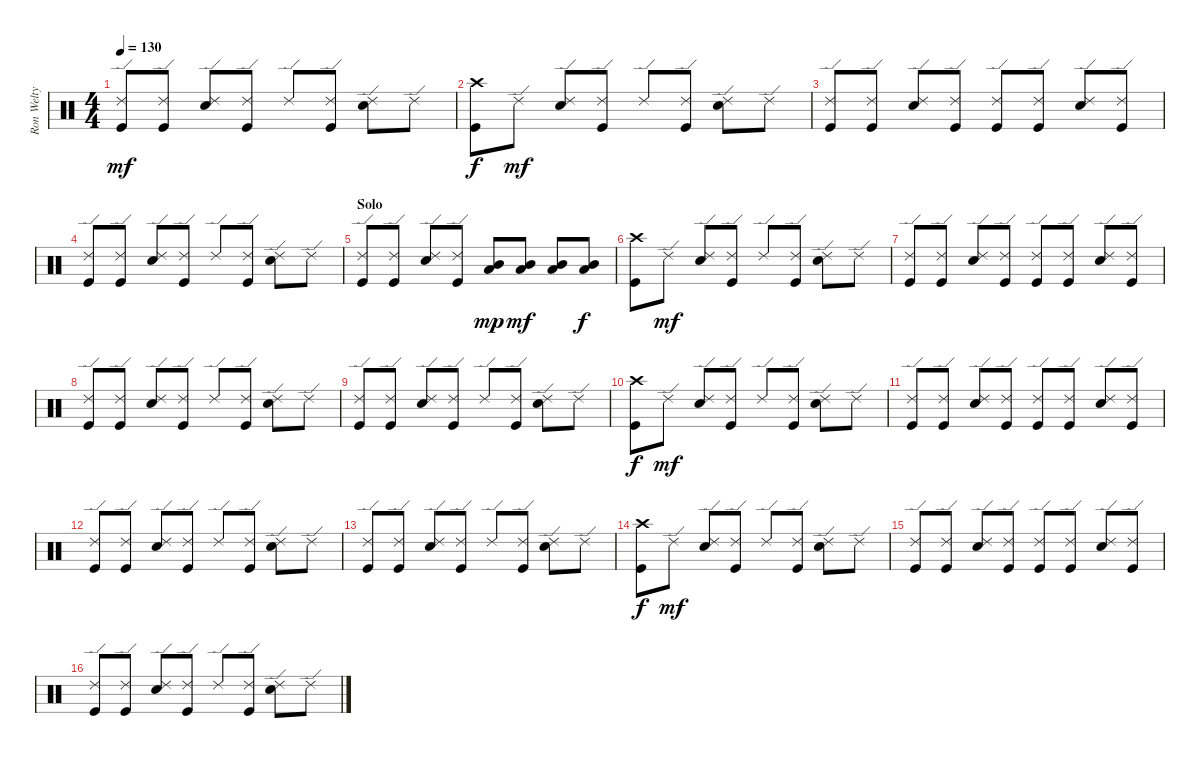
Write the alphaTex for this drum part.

\track ("Ron Welty" "Ron Welty") {instrument percussion}
\staff {score}
\articulation defaults
\ts (4 4)
\tempo 130
\clef neutral
\ks c
("Kick (hit)" "Ride (edge) 2").8{dy mf} ("Kick (hit)" "Ride (edge) 2").8 ("Electric Snare (hit)" "Ride (edge) 2").8 ("Kick (hit)" "Ride (edge) 2").8 "Ride (edge) 2".8 ("Kick (hit)" "Ride (edge) 2").8 ("Electric Snare (hit)" "Ride (edge) 2").8 "Ride (edge) 2".8 |
("Kick (hit)" "Crash high (hit)").8{dy f} "Ride (edge) 2".8{dy mf} ("Electric Snare (hit)" "Ride (edge) 2").8 ("Kick (hit)" "Ride (edge) 2").8 "Ride (edge) 2".8 ("Kick (hit)" "Ride (edge) 2").8 ("Electric Snare (hit)" "Ride (edge) 2").8 "Ride (edge) 2".8 |
("Kick (hit)" "Ride (edge) 2").8 ("Kick (hit)" "Ride (edge) 2").8 ("Electric Snare (hit)" "Ride (edge) 2").8 ("Kick (hit)" "Ride (edge) 2").8 ("Kick (hit)" "Ride (edge) 2").8 ("Kick (hit)" "Ride (edge) 2").8 ("Electric Snare (hit)" "Ride (edge) 2").8 ("Kick (hit)" "Ride (edge) 2").8 |
("Kick (hit)" "Ride (edge) 2").8 ("Kick (hit)" "Ride (edge) 2").8 ("Electric Snare (hit)" "Ride (edge) 2").8 ("Kick (hit)" "Ride (edge) 2").8 "Ride (edge) 2".8 ("Kick (hit)" "Ride (edge) 2").8 ("Electric Snare (hit)" "Ride (edge) 2").8 "Ride (edge) 2".8 |
\section ("" "Solo")
("Kick (hit)" "Ride (edge) 2").8 ("Kick (hit)" "Ride (edge) 2").8 ("Electric Snare (hit)" "Ride (edge) 2").8 ("Kick (hit)" "Ride (edge) 2").8 ("Low Floor Tom (hit)" "Mid Tom (hit)").8{dy mp} ("Mid Tom (hit)" "Low Floor Tom (hit)").8{dy mf} ("Mid Tom (hit)" "Low Floor Tom (hit)").8 ("Mid Tom (hit)" "Low Floor Tom (hit)").8{dy f} |
("Kick (hit)" "Crash high (hit)").8 "Ride (edge) 2".8{dy mf} ("Electric Snare (hit)" "Ride (edge) 2").8 ("Kick (hit)" "Ride (edge) 2").8 "Ride (edge) 2".8 ("Kick (hit)" "Ride (edge) 2").8 ("Electric Snare (hit)" "Ride (edge) 2").8 "Ride (edge) 2".8 |
("Kick (hit)" "Ride (edge) 2").8 ("Kick (hit)" "Ride (edge) 2").8 ("Electric Snare (hit)" "Ride (edge) 2").8 ("Kick (hit)" "Ride (edge) 2").8 ("Kick (hit)" "Ride (edge) 2").8 ("Kick (hit)" "Ride (edge) 2").8 ("Electric Snare (hit)" "Ride (edge) 2").8 ("Kick (hit)" "Ride (edge) 2").8 |
("Kick (hit)" "Ride (edge) 2").8 ("Kick (hit)" "Ride (edge) 2").8 ("Electric Snare (hit)" "Ride (edge) 2").8 ("Kick (hit)" "Ride (edge) 2").8 "Ride (edge) 2".8 ("Kick (hit)" "Ride (edge) 2").8 ("Electric Snare (hit)" "Ride (edge) 2").8 "Ride (edge) 2".8 |
("Kick (hit)" "Ride (edge) 2").8 ("Kick (hit)" "Ride (edge) 2").8 ("Electric Snare (hit)" "Ride (edge) 2").8 ("Kick (hit)" "Ride (edge) 2").8 "Ride (edge) 2".8 ("Kick (hit)" "Ride (edge) 2").8 ("Electric Snare (hit)" "Ride (edge) 2").8 "Ride (edge) 2".8 |
("Kick (hit)" "Crash high (hit)").8{dy f} "Ride (edge) 2".8{dy mf} ("Electric Snare (hit)" "Ride (edge) 2").8 ("Kick (hit)" "Ride (edge) 2").8 "Ride (edge) 2".8 ("Kick (hit)" "Ride (edge) 2").8 ("Electric Snare (hit)" "Ride (edge) 2").8 "Ride (edge) 2".8 |
("Kick (hit)" "Ride (edge) 2").8 ("Kick (hit)" "Ride (edge) 2").8 ("Electric Snare (hit)" "Ride (edge) 2").8 ("Kick (hit)" "Ride (edge) 2").8 ("Kick (hit)" "Ride (edge) 2").8 ("Kick (hit)" "Ride (edge) 2").8 ("Electric Snare (hit)" "Ride (edge) 2").8 ("Kick (hit)" "Ride (edge) 2").8 |
("Kick (hit)" "Ride (edge) 2").8 ("Kick (hit)" "Ride (edge) 2").8 ("Electric Snare (hit)" "Ride (edge) 2").8 ("Kick (hit)" "Ride (edge) 2").8 "Ride (edge) 2".8 ("Kick (hit)" "Ride (edge) 2").8 ("Electric Snare (hit)" "Ride (edge) 2").8 "Ride (edge) 2".8 |
("Kick (hit)" "Ride (edge) 2").8 ("Kick (hit)" "Ride (edge) 2").8 ("Electric Snare (hit)" "Ride (edge) 2").8 ("Kick (hit)" "Ride (edge) 2").8 "Ride (edge) 2".8 ("Kick (hit)" "Ride (edge) 2").8 ("Electric Snare (hit)" "Ride (edge) 2").8 "Ride (edge) 2".8 |
("Kick (hit)" "Crash high (hit)").8{dy f} "Ride (edge) 2".8{dy mf} ("Electric Snare (hit)" "Ride (edge) 2").8 ("Kick (hit)" "Ride (edge) 2").8 "Ride (edge) 2".8 ("Kick (hit)" "Ride (edge) 2").8 ("Electric Snare (hit)" "Ride (edge) 2").8 "Ride (edge) 2".8 |
("Kick (hit)" "Ride (edge) 2").8 ("Kick (hit)" "Ride (edge) 2").8 ("Electric Snare (hit)" "Ride (edge) 2").8 ("Kick (hit)" "Ride (edge) 2").8 ("Kick (hit)" "Ride (edge) 2").8 ("Kick (hit)" "Ride (edge) 2").8 ("Electric Snare (hit)" "Ride (edge) 2").8 ("Kick (hit)" "Ride (edge) 2").8 |
("Kick (hit)" "Ride (edge) 2").8 ("Kick (hit)" "Ride (edge) 2").8 ("Electric Snare (hit)" "Ride (edge) 2").8 ("Kick (hit)" "Ride (edge) 2").8 "Ride (edge) 2".8 ("Kick (hit)" "Ride (edge) 2").8 ("Electric Snare (hit)" "Ride (edge) 2").8 "Ride (edge) 2".8
